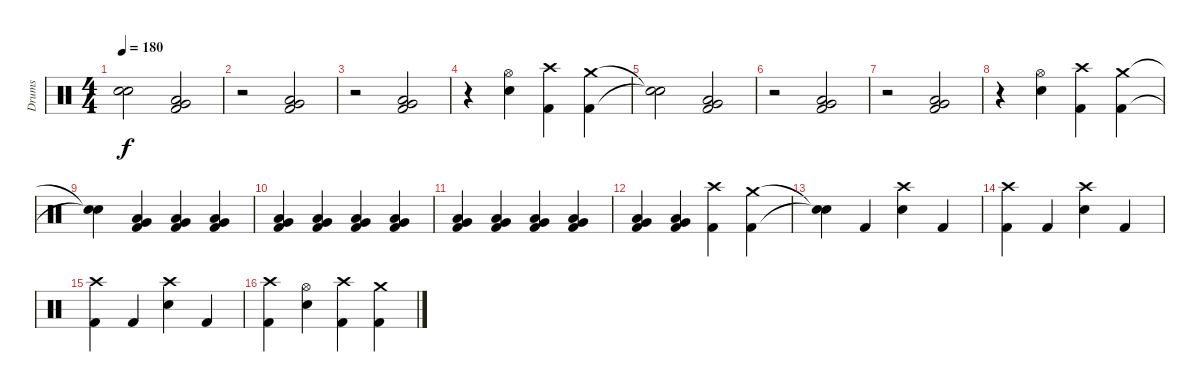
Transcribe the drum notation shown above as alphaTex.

\track ("Drums" "Drums") {instrument percussion}
\staff {score}
\articulation defaults
\ts (4 4)
\tempo 180
\clef neutral
\ks c
("Snare (hit)"{t} "Snare (hit)"{t}).2{dy f} ("Very Low Tom (hit)" "Low Floor Tom (hit)" "Kick (hit) 2").2 |
r.2 ("Very Low Tom (hit)" "Low Floor Tom (hit)" "Kick (hit) 2").2 |
r.2 ("Very Low Tom (hit)" "Low Floor Tom (hit)" "Kick (hit) 2").2 |
r.4 ("Hi-Hat (open)" "Electric Snare (hit)").4 ("Crash high (hit)" "Kick (hit) 2").4 ("Crash medium (hit)" "Kick (hit) 2").4 |
("Snare (hit)"{t} "Snare (hit)"{t}).2 ("Very Low Tom (hit)" "Low Floor Tom (hit)" "Kick (hit) 2").2 |
r.2 ("Very Low Tom (hit)" "Low Floor Tom (hit)" "Kick (hit) 2").2 |
r.2 ("Very Low Tom (hit)" "Low Floor Tom (hit)" "Kick (hit) 2").2 |
r.4 ("Hi-Hat (open)" "Electric Snare (hit)").4 ("Crash high (hit)" "Kick (hit) 2").4 ("Crash medium (hit)" "Kick (hit) 2").4 |
("Snare (hit)"{t} "Snare (hit)"{t}).4 ("Very Low Tom (hit)" "Low Floor Tom (hit)" "Kick (hit) 2").4 ("Very Low Tom (hit)" "Low Floor Tom (hit)" "Kick (hit) 2").4 ("Very Low Tom (hit)" "Low Floor Tom (hit)" "Kick (hit) 2").4 |
("Very Low Tom (hit)" "Low Floor Tom (hit)" "Kick (hit) 2").4 ("Very Low Tom (hit)" "Low Floor Tom (hit)" "Kick (hit) 2").4 ("Very Low Tom (hit)" "Low Floor Tom (hit)" "Kick (hit) 2").4 ("Very Low Tom (hit)" "Low Floor Tom (hit)" "Kick (hit) 2").4 |
("Very Low Tom (hit)" "Low Floor Tom (hit)" "Kick (hit) 2").4 ("Very Low Tom (hit)" "Low Floor Tom (hit)" "Kick (hit) 2").4 ("Very Low Tom (hit)" "Low Floor Tom (hit)" "Kick (hit) 2").4 ("Very Low Tom (hit)" "Low Floor Tom (hit)" "Kick (hit) 2").4 |
("Very Low Tom (hit)" "Low Floor Tom (hit)" "Kick (hit) 2").4 ("Very Low Tom (hit)" "Low Floor Tom (hit)" "Kick (hit) 2").4 ("Crash high (hit)" "Kick (hit) 2").4 ("Crash medium (hit)" "Kick (hit) 2").4 |
("Snare (hit)"{t} "Snare (hit)"{t}).4 "Kick (hit) 2".4 ("Crash high (hit)" "Electric Snare (hit)").4 "Kick (hit) 2".4 |
("Crash high (hit)" "Kick (hit) 2").4 "Kick (hit) 2".4 ("Crash high (hit)" "Electric Snare (hit)").4 "Kick (hit) 2".4 |
("Crash high (hit)" "Kick (hit) 2").4 "Kick (hit) 2".4 ("Crash high (hit)" "Electric Snare (hit)").4 "Kick (hit) 2".4 |
("Crash high (hit)" "Kick (hit) 2").4 ("Hi-Hat (open)" "Electric Snare (hit)").4 ("Crash high (hit)" "Kick (hit) 2").4 ("Crash medium (hit)" "Kick (hit) 2").4
